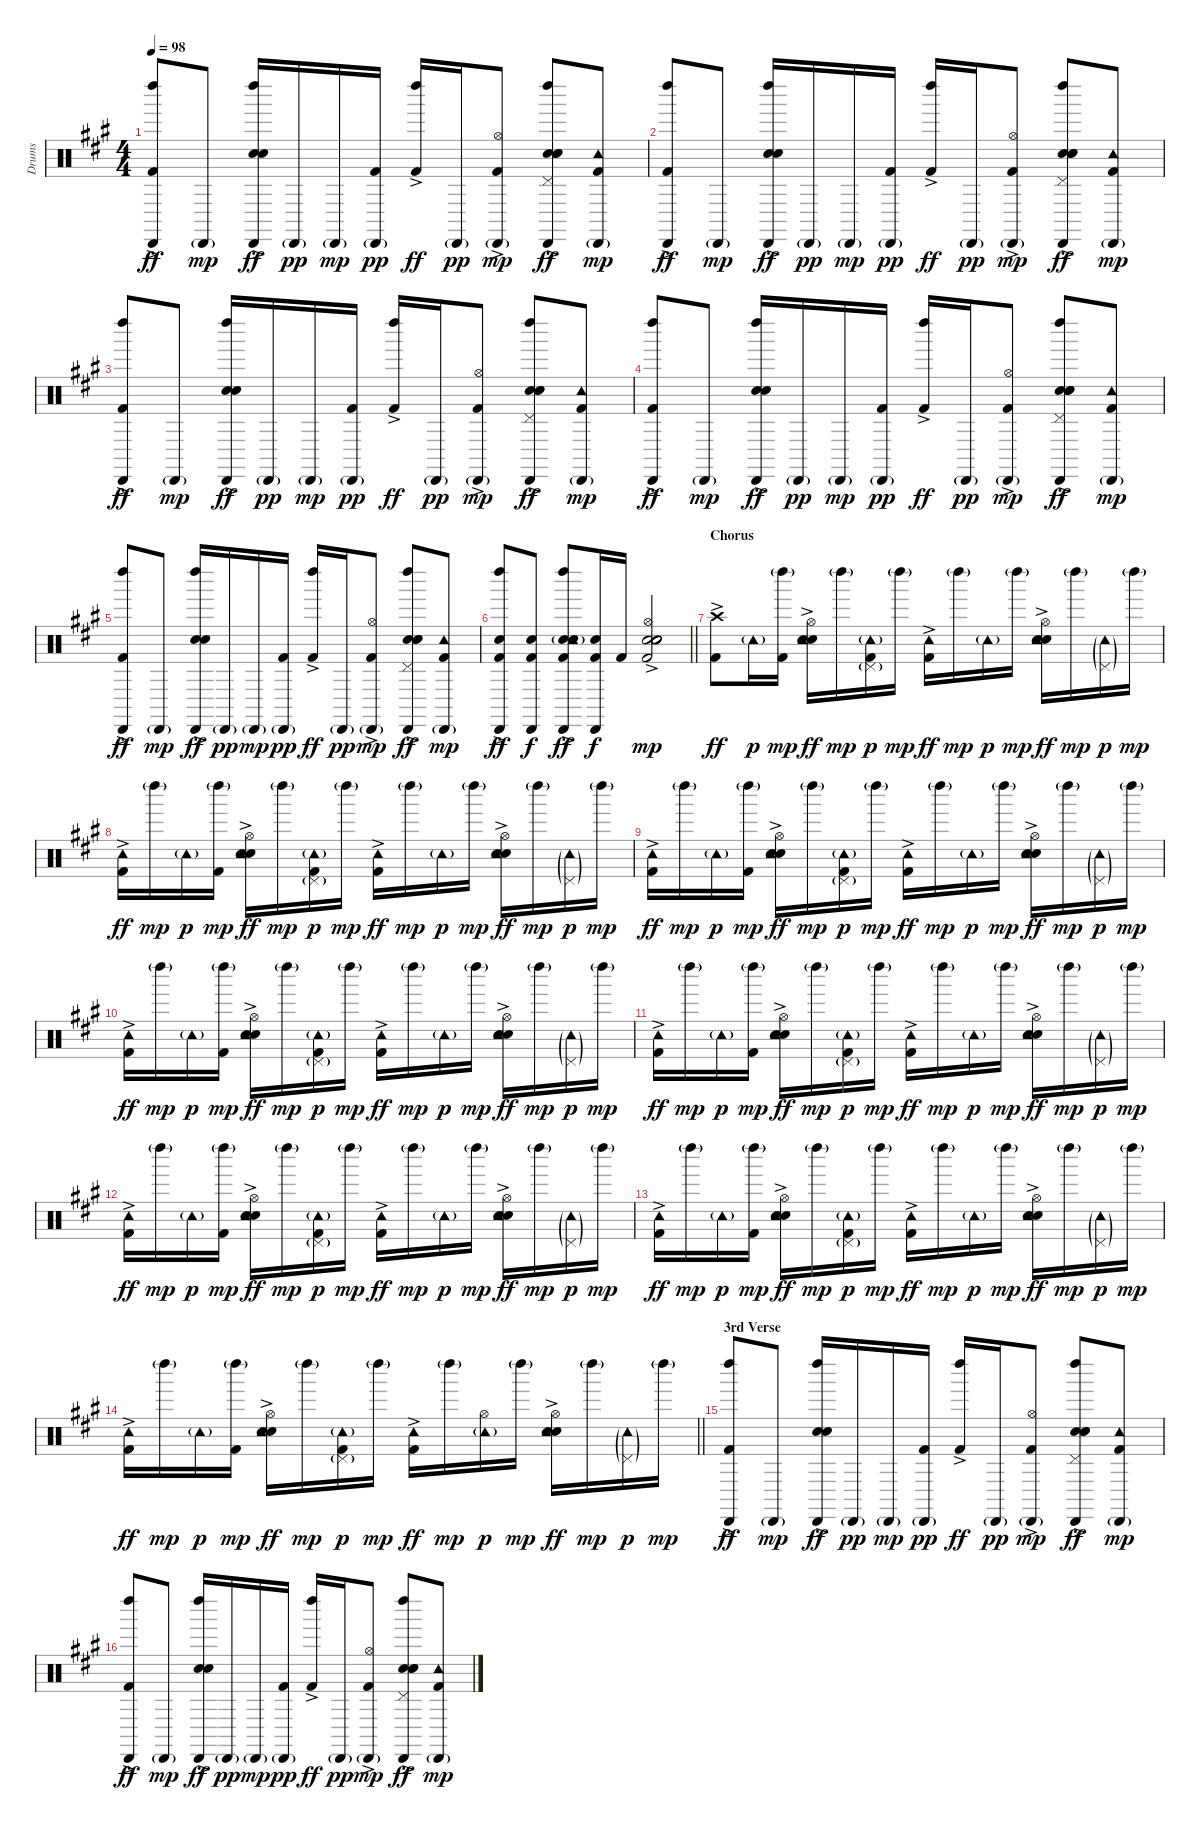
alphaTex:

\track ("Drums" "Drums") {instrument percussion}
\staff {score}
\articulation defaults
\ts (4 4)
\tempo 98
\clef neutral
\ks a
("Kick (hit) 2"{ac} "Cabasa (hit)" "Left Maraca (hit)"{ac}).8{dy ff} "Cabasa (hit)"{g}.8{dy mp} ("Snare (hit) 2" "Electric Snare (hit)"{ac} "Cabasa (hit)" "Left Maraca (hit)"{ac}).16{dy ff} "Cabasa (hit)"{g}.16{dy pp} "Cabasa (hit)"{g}.16{dy mp} ("Kick (hit) 2" "Cabasa (hit)"{g}).16{dy pp} ("Kick (hit) 2"{ac} "Left Maraca (hit)"{ac}).16{dy ff} "Cabasa (hit)"{g}.16{dy pp} ("Kick (hit) 2"{ac} "Hi-Hat (open)" "Cabasa (hit)"{g}).8{dy mp} ("Snare (hit) 2" "Electric Snare (hit)"{ac} "Pedal Hi-Hat (hit)" "Hand Clap (hit)"{ac} "Cabasa (hit)" "Left Maraca (hit)"{ac}).8{dy ff} ("Kick (hit) 2" "Tambourine (hit)" "Cabasa (hit)"{g}).8{dy mp} |
("Kick (hit) 2"{ac} "Cabasa (hit)" "Left Maraca (hit)"{ac}).8{dy ff} "Cabasa (hit)"{g}.8{dy mp} ("Snare (hit) 2" "Electric Snare (hit)"{ac} "Cabasa (hit)" "Left Maraca (hit)"{ac}).16{dy ff} "Cabasa (hit)"{g}.16{dy pp} "Cabasa (hit)"{g}.16{dy mp} ("Kick (hit) 2" "Cabasa (hit)"{g}).16{dy pp} ("Kick (hit) 2"{ac} "Left Maraca (hit)"{ac}).16{dy ff} "Cabasa (hit)"{g}.16{dy pp} ("Kick (hit) 2"{ac} "Hi-Hat (open)" "Cabasa (hit)"{g}).8{dy mp} ("Snare (hit) 2" "Electric Snare (hit)"{ac} "Pedal Hi-Hat (hit)" "Hand Clap (hit)"{ac} "Cabasa (hit)" "Left Maraca (hit)"{ac}).8{dy ff} ("Kick (hit) 2" "Tambourine (hit)" "Cabasa (hit)"{g}).8{dy mp} |
("Kick (hit) 2"{ac} "Cabasa (hit)" "Left Maraca (hit)"{ac}).8{dy ff} "Cabasa (hit)"{g}.8{dy mp} ("Snare (hit) 2" "Electric Snare (hit)"{ac} "Cabasa (hit)" "Left Maraca (hit)"{ac}).16{dy ff} "Cabasa (hit)"{g}.16{dy pp} "Cabasa (hit)"{g}.16{dy mp} ("Kick (hit) 2" "Cabasa (hit)"{g}).16{dy pp} ("Kick (hit) 2"{ac} "Left Maraca (hit)"{ac}).16{dy ff} "Cabasa (hit)"{g}.16{dy pp} ("Kick (hit) 2"{ac} "Hi-Hat (open)" "Cabasa (hit)"{g}).8{dy mp} ("Snare (hit) 2" "Electric Snare (hit)"{ac} "Pedal Hi-Hat (hit)" "Hand Clap (hit)"{ac} "Cabasa (hit)" "Left Maraca (hit)"{ac}).8{dy ff} ("Kick (hit) 2" "Tambourine (hit)" "Cabasa (hit)"{g}).8{dy mp} |
("Kick (hit) 2"{ac} "Cabasa (hit)" "Left Maraca (hit)"{ac}).8{dy ff} "Cabasa (hit)"{g}.8{dy mp} ("Snare (hit) 2" "Electric Snare (hit)"{ac} "Cabasa (hit)" "Left Maraca (hit)"{ac}).16{dy ff} "Cabasa (hit)"{g}.16{dy pp} "Cabasa (hit)"{g}.16{dy mp} ("Kick (hit) 2" "Cabasa (hit)"{g}).16{dy pp} ("Kick (hit) 2"{ac} "Left Maraca (hit)"{ac}).16{dy ff} "Cabasa (hit)"{g}.16{dy pp} ("Kick (hit) 2"{ac} "Hi-Hat (open)" "Cabasa (hit)"{g}).8{dy mp} ("Snare (hit) 2" "Electric Snare (hit)"{ac} "Pedal Hi-Hat (hit)" "Hand Clap (hit)"{ac} "Cabasa (hit)" "Left Maraca (hit)"{ac}).8{dy ff} ("Kick (hit) 2" "Tambourine (hit)" "Cabasa (hit)"{g}).8{dy mp} |
("Kick (hit) 2"{ac} "Cabasa (hit)" "Left Maraca (hit)"{ac}).8{dy ff} "Cabasa (hit)"{g}.8{dy mp} ("Snare (hit) 2" "Electric Snare (hit)"{ac} "Cabasa (hit)" "Left Maraca (hit)"{ac}).16{dy ff} "Cabasa (hit)"{g}.16{dy pp} "Cabasa (hit)"{g}.16{dy mp} ("Kick (hit) 2" "Cabasa (hit)"{g}).16{dy pp} ("Kick (hit) 2"{ac} "Left Maraca (hit)"{ac}).16{dy ff} "Cabasa (hit)"{g}.16{dy pp} ("Kick (hit) 2"{ac} "Hi-Hat (open)" "Cabasa (hit)"{g}).8{dy mp} ("Snare (hit) 2" "Electric Snare (hit)"{ac} "Pedal Hi-Hat (hit)" "Hand Clap (hit)"{ac} "Cabasa (hit)" "Left Maraca (hit)"{ac}).8{dy ff} ("Kick (hit) 2" "Tambourine (hit)" "Cabasa (hit)"{g}).8{dy mp} |
\barLineRight lightlight
("Kick (hit) 2"{ac} "Snare (hit) 2" "Cabasa (hit)" "Left Maraca (hit)").8{dy ff} ("Kick (hit) 2" "Snare (hit) 2" "Cabasa (hit)").8{dy f} ("Kick (hit) 2"{ac} "Snare (hit) 2"{ac} "Electric Snare (hit)" "Tambourine (hit)"{g} "Cabasa (hit)" "Left Maraca (hit)").8{dy ff} ("Kick (hit) 2" "Snare (hit) 2" "Cabasa (hit)").16{dy f} "Kick (hit) 2".16 ("Kick (hit) 2"{ac} "Snare (hit) 2"{ac} "Electric Snare (hit)" "Hand Clap (hit)" "Electric Snare (hit)" "Hi-Hat (open)").2{dy mp} |
\section ("" "Chorus")
("Kick (hit) 2"{ac} "Crash high (hit)").8{dy ff} "Tambourine (hit)"{g}.16{dy p} ("Kick (hit) 2" "Left Maraca (hit)"{g}).16{dy mp} ("Snare (hit) 2"{ac} "Electric Snare (hit)" "Hi-Hat (open)" "Tambourine (hit)").16{dy ff} "Left Maraca (hit)"{g}.16{dy mp} ("Kick (hit) 2" "Pedal Hi-Hat (hit)"{g} "Tambourine (hit)"{g}).16{dy p} "Left Maraca (hit)"{g}.16{dy mp} ("Kick (hit) 2"{ac} "Tambourine (hit)").16{dy ff} "Left Maraca (hit)"{g}.16{dy mp} "Tambourine (hit)"{g}.16{dy p} "Left Maraca (hit)"{g}.16{dy mp} ("Snare (hit) 2"{ac} "Electric Snare (hit)" "Hi-Hat (open)" "Tambourine (hit)").16{dy ff} "Left Maraca (hit)"{g}.16{dy mp} ("Pedal Hi-Hat (hit)"{g} "Tambourine (hit)"{g}).16{dy p} "Left Maraca (hit)"{g}.16{dy mp} |
("Kick (hit) 2"{ac} "Tambourine (hit)").16{dy ff} "Left Maraca (hit)"{g}.16{dy mp} "Tambourine (hit)"{g}.16{dy p} ("Kick (hit) 2" "Left Maraca (hit)"{g}).16{dy mp} ("Snare (hit) 2"{ac} "Electric Snare (hit)" "Hi-Hat (open)" "Tambourine (hit)").16{dy ff} "Left Maraca (hit)"{g}.16{dy mp} ("Kick (hit) 2" "Pedal Hi-Hat (hit)"{g} "Tambourine (hit)"{g}).16{dy p} "Left Maraca (hit)"{g}.16{dy mp} ("Kick (hit) 2"{ac} "Tambourine (hit)").16{dy ff} "Left Maraca (hit)"{g}.16{dy mp} "Tambourine (hit)"{g}.16{dy p} "Left Maraca (hit)"{g}.16{dy mp} ("Snare (hit) 2"{ac} "Electric Snare (hit)" "Hi-Hat (open)" "Tambourine (hit)").16{dy ff} "Left Maraca (hit)"{g}.16{dy mp} ("Pedal Hi-Hat (hit)"{g} "Tambourine (hit)"{g}).16{dy p} "Left Maraca (hit)"{g}.16{dy mp} |
("Kick (hit) 2"{ac} "Tambourine (hit)").16{dy ff} "Left Maraca (hit)"{g}.16{dy mp} "Tambourine (hit)"{g}.16{dy p} ("Kick (hit) 2" "Left Maraca (hit)"{g}).16{dy mp} ("Snare (hit) 2"{ac} "Electric Snare (hit)" "Hi-Hat (open)" "Tambourine (hit)").16{dy ff} "Left Maraca (hit)"{g}.16{dy mp} ("Kick (hit) 2" "Pedal Hi-Hat (hit)"{g} "Tambourine (hit)"{g}).16{dy p} "Left Maraca (hit)"{g}.16{dy mp} ("Kick (hit) 2"{ac} "Tambourine (hit)").16{dy ff} "Left Maraca (hit)"{g}.16{dy mp} "Tambourine (hit)"{g}.16{dy p} "Left Maraca (hit)"{g}.16{dy mp} ("Snare (hit) 2"{ac} "Electric Snare (hit)" "Hi-Hat (open)" "Tambourine (hit)").16{dy ff} "Left Maraca (hit)"{g}.16{dy mp} ("Pedal Hi-Hat (hit)"{g} "Tambourine (hit)"{g}).16{dy p} "Left Maraca (hit)"{g}.16{dy mp} |
("Kick (hit) 2"{ac} "Tambourine (hit)").16{dy ff} "Left Maraca (hit)"{g}.16{dy mp} "Tambourine (hit)"{g}.16{dy p} ("Kick (hit) 2" "Left Maraca (hit)"{g}).16{dy mp} ("Snare (hit) 2"{ac} "Electric Snare (hit)" "Hi-Hat (open)" "Tambourine (hit)").16{dy ff} "Left Maraca (hit)"{g}.16{dy mp} ("Kick (hit) 2" "Pedal Hi-Hat (hit)"{g} "Tambourine (hit)"{g}).16{dy p} "Left Maraca (hit)"{g}.16{dy mp} ("Kick (hit) 2"{ac} "Tambourine (hit)").16{dy ff} "Left Maraca (hit)"{g}.16{dy mp} "Tambourine (hit)"{g}.16{dy p} "Left Maraca (hit)"{g}.16{dy mp} ("Snare (hit) 2"{ac} "Electric Snare (hit)" "Hi-Hat (open)" "Tambourine (hit)").16{dy ff} "Left Maraca (hit)"{g}.16{dy mp} ("Pedal Hi-Hat (hit)"{g} "Tambourine (hit)"{g}).16{dy p} "Left Maraca (hit)"{g}.16{dy mp} |
("Kick (hit) 2"{ac} "Tambourine (hit)").16{dy ff} "Left Maraca (hit)"{g}.16{dy mp} "Tambourine (hit)"{g}.16{dy p} ("Kick (hit) 2" "Left Maraca (hit)"{g}).16{dy mp} ("Snare (hit) 2"{ac} "Electric Snare (hit)" "Hi-Hat (open)" "Tambourine (hit)").16{dy ff} "Left Maraca (hit)"{g}.16{dy mp} ("Kick (hit) 2" "Pedal Hi-Hat (hit)"{g} "Tambourine (hit)"{g}).16{dy p} "Left Maraca (hit)"{g}.16{dy mp} ("Kick (hit) 2"{ac} "Tambourine (hit)").16{dy ff} "Left Maraca (hit)"{g}.16{dy mp} "Tambourine (hit)"{g}.16{dy p} "Left Maraca (hit)"{g}.16{dy mp} ("Snare (hit) 2"{ac} "Electric Snare (hit)" "Hi-Hat (open)" "Tambourine (hit)").16{dy ff} "Left Maraca (hit)"{g}.16{dy mp} ("Pedal Hi-Hat (hit)"{g} "Tambourine (hit)"{g}).16{dy p} "Left Maraca (hit)"{g}.16{dy mp} |
("Kick (hit) 2"{ac} "Tambourine (hit)").16{dy ff} "Left Maraca (hit)"{g}.16{dy mp} "Tambourine (hit)"{g}.16{dy p} ("Kick (hit) 2" "Left Maraca (hit)"{g}).16{dy mp} ("Snare (hit) 2"{ac} "Electric Snare (hit)" "Hi-Hat (open)" "Tambourine (hit)").16{dy ff} "Left Maraca (hit)"{g}.16{dy mp} ("Kick (hit) 2" "Pedal Hi-Hat (hit)"{g} "Tambourine (hit)"{g}).16{dy p} "Left Maraca (hit)"{g}.16{dy mp} ("Kick (hit) 2"{ac} "Tambourine (hit)").16{dy ff} "Left Maraca (hit)"{g}.16{dy mp} "Tambourine (hit)"{g}.16{dy p} "Left Maraca (hit)"{g}.16{dy mp} ("Snare (hit) 2"{ac} "Electric Snare (hit)" "Hi-Hat (open)" "Tambourine (hit)").16{dy ff} "Left Maraca (hit)"{g}.16{dy mp} ("Pedal Hi-Hat (hit)"{g} "Tambourine (hit)"{g}).16{dy p} "Left Maraca (hit)"{g}.16{dy mp} |
("Kick (hit) 2"{ac} "Tambourine (hit)").16{dy ff} "Left Maraca (hit)"{g}.16{dy mp} "Tambourine (hit)"{g}.16{dy p} ("Kick (hit) 2" "Left Maraca (hit)"{g}).16{dy mp} ("Snare (hit) 2"{ac} "Electric Snare (hit)" "Hi-Hat (open)" "Tambourine (hit)").16{dy ff} "Left Maraca (hit)"{g}.16{dy mp} ("Kick (hit) 2" "Pedal Hi-Hat (hit)"{g} "Tambourine (hit)"{g}).16{dy p} "Left Maraca (hit)"{g}.16{dy mp} ("Kick (hit) 2"{ac} "Tambourine (hit)").16{dy ff} "Left Maraca (hit)"{g}.16{dy mp} "Tambourine (hit)"{g}.16{dy p} "Left Maraca (hit)"{g}.16{dy mp} ("Snare (hit) 2"{ac} "Electric Snare (hit)" "Hi-Hat (open)" "Tambourine (hit)").16{dy ff} "Left Maraca (hit)"{g}.16{dy mp} ("Pedal Hi-Hat (hit)"{g} "Tambourine (hit)"{g}).16{dy p} "Left Maraca (hit)"{g}.16{dy mp} |
\barLineRight lightlight
("Kick (hit) 2"{ac} "Tambourine (hit)").16{dy ff} "Left Maraca (hit)"{g}.16{dy mp} "Tambourine (hit)"{g}.16{dy p} ("Kick (hit) 2" "Left Maraca (hit)"{g}).16{dy mp} ("Snare (hit) 2"{ac} "Electric Snare (hit)" "Hi-Hat (open)" "Tambourine (hit)").16{dy ff} "Left Maraca (hit)"{g}.16{dy mp} ("Kick (hit) 2" "Pedal Hi-Hat (hit)"{g} "Tambourine (hit)"{g}).16{dy p} "Left Maraca (hit)"{g}.16{dy mp} ("Kick (hit) 2"{ac} "Tambourine (hit)").16{dy ff} "Left Maraca (hit)"{g}.16{dy mp} ("Hi-Hat (open)" "Tambourine (hit)"{g}).16{dy p} "Left Maraca (hit)"{g}.16{dy mp} ("Snare (hit) 2"{ac} "Electric Snare (hit)" "Hi-Hat (open)" "Tambourine (hit)").16{dy ff} "Left Maraca (hit)"{g}.16{dy mp} ("Pedal Hi-Hat (hit)"{g} "Tambourine (hit)"{g}).16{dy p} "Left Maraca (hit)"{g}.16{dy mp} |
\section ("" "3rd Verse")
("Kick (hit) 2"{ac} "Cabasa (hit)" "Left Maraca (hit)"{ac}).8{dy ff} "Cabasa (hit)"{g}.8{dy mp} ("Snare (hit) 2" "Electric Snare (hit)"{ac} "Cabasa (hit)" "Left Maraca (hit)"{ac}).16{dy ff} "Cabasa (hit)"{g}.16{dy pp} "Cabasa (hit)"{g}.16{dy mp} ("Kick (hit) 2" "Cabasa (hit)"{g}).16{dy pp} ("Kick (hit) 2"{ac} "Left Maraca (hit)"{ac}).16{dy ff} "Cabasa (hit)"{g}.16{dy pp} ("Kick (hit) 2"{ac} "Hi-Hat (open)" "Cabasa (hit)"{g}).8{dy mp} ("Snare (hit) 2" "Electric Snare (hit)"{ac} "Pedal Hi-Hat (hit)" "Hand Clap (hit)"{ac} "Cabasa (hit)" "Left Maraca (hit)"{ac}).8{dy ff} ("Kick (hit) 2" "Tambourine (hit)" "Cabasa (hit)"{g}).8{dy mp} |
("Kick (hit) 2"{ac} "Cabasa (hit)" "Left Maraca (hit)"{ac}).8{dy ff} "Cabasa (hit)"{g}.8{dy mp} ("Snare (hit) 2" "Electric Snare (hit)"{ac} "Cabasa (hit)" "Left Maraca (hit)"{ac}).16{dy ff} "Cabasa (hit)"{g}.16{dy pp} "Cabasa (hit)"{g}.16{dy mp} ("Kick (hit) 2" "Cabasa (hit)"{g}).16{dy pp} ("Kick (hit) 2"{ac} "Left Maraca (hit)"{ac}).16{dy ff} "Cabasa (hit)"{g}.16{dy pp} ("Kick (hit) 2"{ac} "Hi-Hat (open)" "Cabasa (hit)"{g}).8{dy mp} ("Snare (hit) 2" "Electric Snare (hit)"{ac} "Pedal Hi-Hat (hit)" "Hand Clap (hit)"{ac} "Cabasa (hit)" "Left Maraca (hit)"{ac}).8{dy ff} ("Kick (hit) 2" "Tambourine (hit)" "Cabasa (hit)"{g}).8{dy mp}
